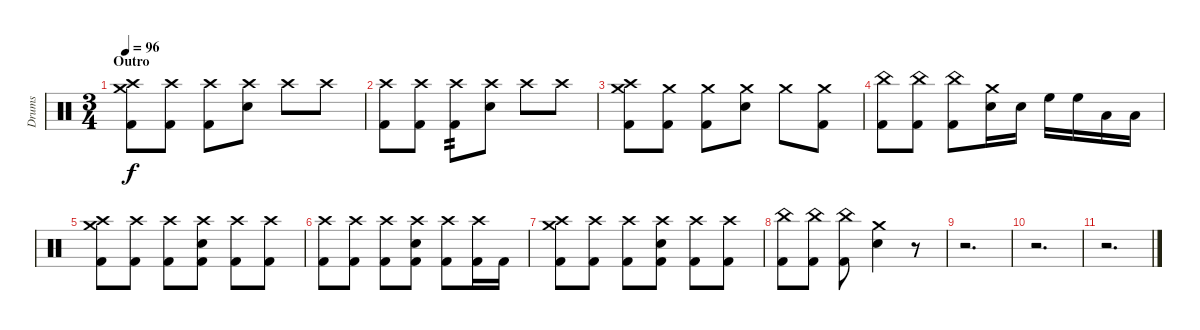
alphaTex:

\track ("Drums" "Drums") {instrument percussion}
\staff {score}
\articulation defaults
\ts (3 4)
\section ("" "Outro")
\tempo 96
\clef neutral
\ks c
("Crash high (hit)" "Crash medium (hit)" "Kick (hit) 2").8{dy f} ("Crash high (hit)" "Kick (hit) 2").8 ("Crash high (hit)" "Kick (hit) 2").8 ("Crash high (hit)" "Snare (hit) 2").8 "Crash high (hit)".8 "Crash high (hit)".8 |
("Crash high (hit)" "Kick (hit) 2").8 ("Crash high (hit)" "Kick (hit) 2").8 ("Crash high (hit)" "Kick (hit) 2").8{tp 2} ("Crash high (hit)" "Snare (hit) 2").8 "Crash high (hit)".8 "Crash high (hit)".8 |
("Crash medium (hit)" "Crash high (hit)" "Kick (hit) 2").8 ("Crash medium (hit)" "Kick (hit) 2").8 ("Crash medium (hit)" "Kick (hit) 2").8 ("Crash medium (hit)" "Snare (hit) 2").8 "Crash medium (hit)".8 ("Crash medium (hit)" "Kick (hit) 2").8 |
("China (hit)" "Kick (hit) 2").8 ("China (hit)" "Kick (hit) 2").8 ("China (hit)" "Kick (hit) 2").8 ("Crash medium (hit)" "Snare (hit) 2").16 "Snare (hit) 2".16 "High Floor Tom (hit)".16 "High Floor Tom (hit)".16 "Low Tom (hit)".16 "Low Tom (hit)".16 |
("Crash high (hit)" "Crash medium (hit)" "Kick (hit) 2").8 ("Crash high (hit)" "Kick (hit) 2").8 ("Crash high (hit)" "Kick (hit) 2").8 ("Crash high (hit)" "Snare (hit) 2" "Kick (hit) 2").8 ("Crash high (hit)" "Kick (hit) 2").8 ("Crash high (hit)" "Kick (hit) 2").8 |
("Crash high (hit)" "Kick (hit) 2").8 ("Crash high (hit)" "Kick (hit) 2").8 ("Crash high (hit)" "Kick (hit) 2").8 ("Crash high (hit)" "Snare (hit) 2" "Kick (hit) 2").8 ("Crash high (hit)" "Kick (hit) 2").8 ("Crash high (hit)" "Kick (hit) 2").16 "Kick (hit) 2".16 |
("Crash high (hit)" "Crash medium (hit)" "Kick (hit) 2").8 ("Crash high (hit)" "Kick (hit) 2").8 ("Crash high (hit)" "Kick (hit) 2").8 ("Crash high (hit)" "Snare (hit) 2" "Kick (hit) 2").8 ("Crash high (hit)" "Kick (hit) 2").8 ("Crash high (hit)" "Kick (hit) 2").8 |
("China (hit)" "Kick (hit) 2").8 ("China (hit)" "Kick (hit) 2").8 ("China (hit)" "Kick (hit) 2").8 ("Crash medium (hit)" "Snare (hit) 2").4 r.8 |
r.2{d} |
r.2{d} |
r.2{d}
